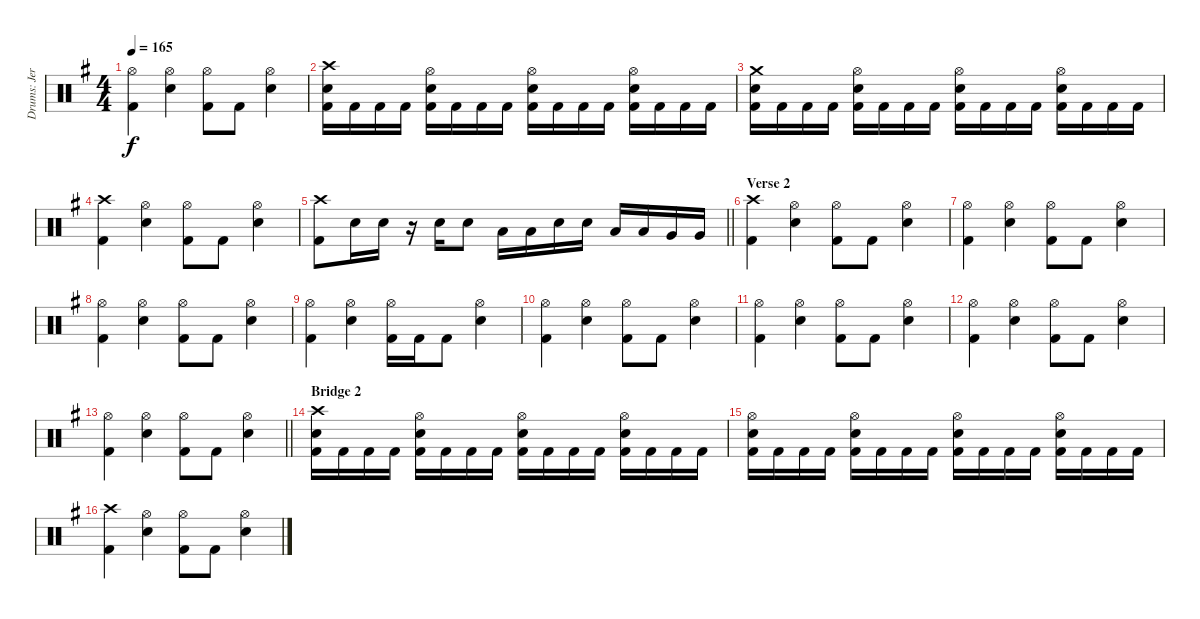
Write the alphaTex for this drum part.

\track ("Drums: Jere Luokkamäki" "Drums: Jer") {instrument percussion}
\staff {score}
\articulation defaults
\ts (4 4)
\tempo 165
\clef neutral
\ks eminor
("Hi-Hat (open)" "Kick (hit) 2").4{dy f} ("Hi-Hat (open)" "Electric Snare (hit)").4 ("Hi-Hat (open)" "Kick (hit) 2").8 "Kick (hit) 2".8 ("Hi-Hat (open)" "Electric Snare (hit)").4 |
("Crash high (hit)" "Electric Snare (hit)" "Kick (hit) 2").16 "Kick (hit) 2".16 "Kick (hit) 2".16 "Kick (hit) 2".16 ("Hi-Hat (open)" "Electric Snare (hit)" "Kick (hit) 2").16 "Kick (hit) 2".16 "Kick (hit) 2".16 "Kick (hit) 2".16 ("Hi-Hat (open)" "Electric Snare (hit)" "Kick (hit) 2").16 "Kick (hit) 2".16 "Kick (hit) 2".16 "Kick (hit) 2".16 ("Hi-Hat (open)" "Electric Snare (hit)" "Kick (hit) 2").16 "Kick (hit) 2".16 "Kick (hit) 2".16 "Kick (hit) 2".16 |
("Crash medium (hit)" "Electric Snare (hit)" "Kick (hit) 2").16 "Kick (hit) 2".16 "Kick (hit) 2".16 "Kick (hit) 2".16 ("Hi-Hat (open)" "Electric Snare (hit)" "Kick (hit) 2").16 "Kick (hit) 2".16 "Kick (hit) 2".16 "Kick (hit) 2".16 ("Hi-Hat (open)" "Electric Snare (hit)" "Kick (hit) 2").16 "Kick (hit) 2".16 "Kick (hit) 2".16 "Kick (hit) 2".16 ("Hi-Hat (open)" "Electric Snare (hit)" "Kick (hit) 2").16 "Kick (hit) 2".16 "Kick (hit) 2".16 "Kick (hit) 2".16 |
("Crash high (hit)" "Kick (hit) 2").4 ("Hi-Hat (open)" "Electric Snare (hit)").4 ("Hi-Hat (open)" "Kick (hit) 2").8 "Kick (hit) 2".8 ("Hi-Hat (open)" "Electric Snare (hit)").4 |
\barLineRight lightlight
("Crash high (hit)" "Kick (hit) 2").8 "Electric Snare (hit)".16 "Electric Snare (hit)".16 r.16 "Electric Snare (hit)".16 "Electric Snare (hit)".8 "Low Tom (hit)".16 "Low Tom (hit)".16 "Electric Snare (hit)".16 "Electric Snare (hit)".16 "Low Tom (hit)".16 "Low Tom (hit)".16 "Very Low Tom (hit)".16 "Very Low Tom (hit)".16 |
\section ("" "Verse 2")
("Crash high (hit)" "Kick (hit) 2").4 ("Hi-Hat (open)" "Electric Snare (hit)").4 ("Hi-Hat (open)" "Kick (hit) 2").8 "Kick (hit) 2".8 ("Hi-Hat (open)" "Electric Snare (hit)").4 |
("Hi-Hat (open)" "Kick (hit) 2").4 ("Hi-Hat (open)" "Electric Snare (hit)").4 ("Hi-Hat (open)" "Kick (hit) 2").8 "Kick (hit) 2".8 ("Hi-Hat (open)" "Electric Snare (hit)").4 |
("Hi-Hat (open)" "Kick (hit) 2").4 ("Hi-Hat (open)" "Electric Snare (hit)").4 ("Hi-Hat (open)" "Kick (hit) 2").8 "Kick (hit) 2".8 ("Hi-Hat (open)" "Electric Snare (hit)").4 |
("Hi-Hat (open)" "Kick (hit) 2").4 ("Hi-Hat (open)" "Electric Snare (hit)").4 ("Hi-Hat (open)" "Kick (hit) 2").16 "Kick (hit) 2".16 "Kick (hit) 2".8 ("Hi-Hat (open)" "Electric Snare (hit)").4 |
("Hi-Hat (open)" "Kick (hit) 2").4 ("Hi-Hat (open)" "Electric Snare (hit)").4 ("Hi-Hat (open)" "Kick (hit) 2").8 "Kick (hit) 2".8 ("Hi-Hat (open)" "Electric Snare (hit)").4 |
("Hi-Hat (open)" "Kick (hit) 2").4 ("Hi-Hat (open)" "Electric Snare (hit)").4 ("Hi-Hat (open)" "Kick (hit) 2").8 "Kick (hit) 2".8 ("Hi-Hat (open)" "Electric Snare (hit)").4 |
("Hi-Hat (open)" "Kick (hit) 2").4 ("Hi-Hat (open)" "Electric Snare (hit)").4 ("Hi-Hat (open)" "Kick (hit) 2").8 "Kick (hit) 2".8 ("Hi-Hat (open)" "Electric Snare (hit)").4 |
\barLineRight lightlight
("Hi-Hat (open)" "Kick (hit) 2").4 ("Hi-Hat (open)" "Electric Snare (hit)").4 ("Hi-Hat (open)" "Kick (hit) 2").8 "Kick (hit) 2".8 ("Hi-Hat (open)" "Electric Snare (hit)").4 |
\section ("" "Bridge 2")
("Crash high (hit)" "Electric Snare (hit)" "Kick (hit) 2").16 "Kick (hit) 2".16 "Kick (hit) 2".16 "Kick (hit) 2".16 ("Hi-Hat (open)" "Electric Snare (hit)" "Kick (hit) 2").16 "Kick (hit) 2".16 "Kick (hit) 2".16 "Kick (hit) 2".16 ("Hi-Hat (open)" "Electric Snare (hit)" "Kick (hit) 2").16 "Kick (hit) 2".16 "Kick (hit) 2".16 "Kick (hit) 2".16 ("Hi-Hat (open)" "Electric Snare (hit)" "Kick (hit) 2").16 "Kick (hit) 2".16 "Kick (hit) 2".16 "Kick (hit) 2".16 |
("Hi-Hat (open)" "Electric Snare (hit)" "Kick (hit) 2").16 "Kick (hit) 2".16 "Kick (hit) 2".16 "Kick (hit) 2".16 ("Hi-Hat (open)" "Electric Snare (hit)" "Kick (hit) 2").16 "Kick (hit) 2".16 "Kick (hit) 2".16 "Kick (hit) 2".16 ("Hi-Hat (open)" "Electric Snare (hit)" "Kick (hit) 2").16 "Kick (hit) 2".16 "Kick (hit) 2".16 "Kick (hit) 2".16 ("Hi-Hat (open)" "Electric Snare (hit)" "Kick (hit) 2").16 "Kick (hit) 2".16 "Kick (hit) 2".16 "Kick (hit) 2".16 |
("Crash high (hit)" "Kick (hit) 2").4 ("Hi-Hat (open)" "Electric Snare (hit)").4 ("Hi-Hat (open)" "Kick (hit) 2").8 "Kick (hit) 2".8 ("Hi-Hat (open)" "Electric Snare (hit)").4
